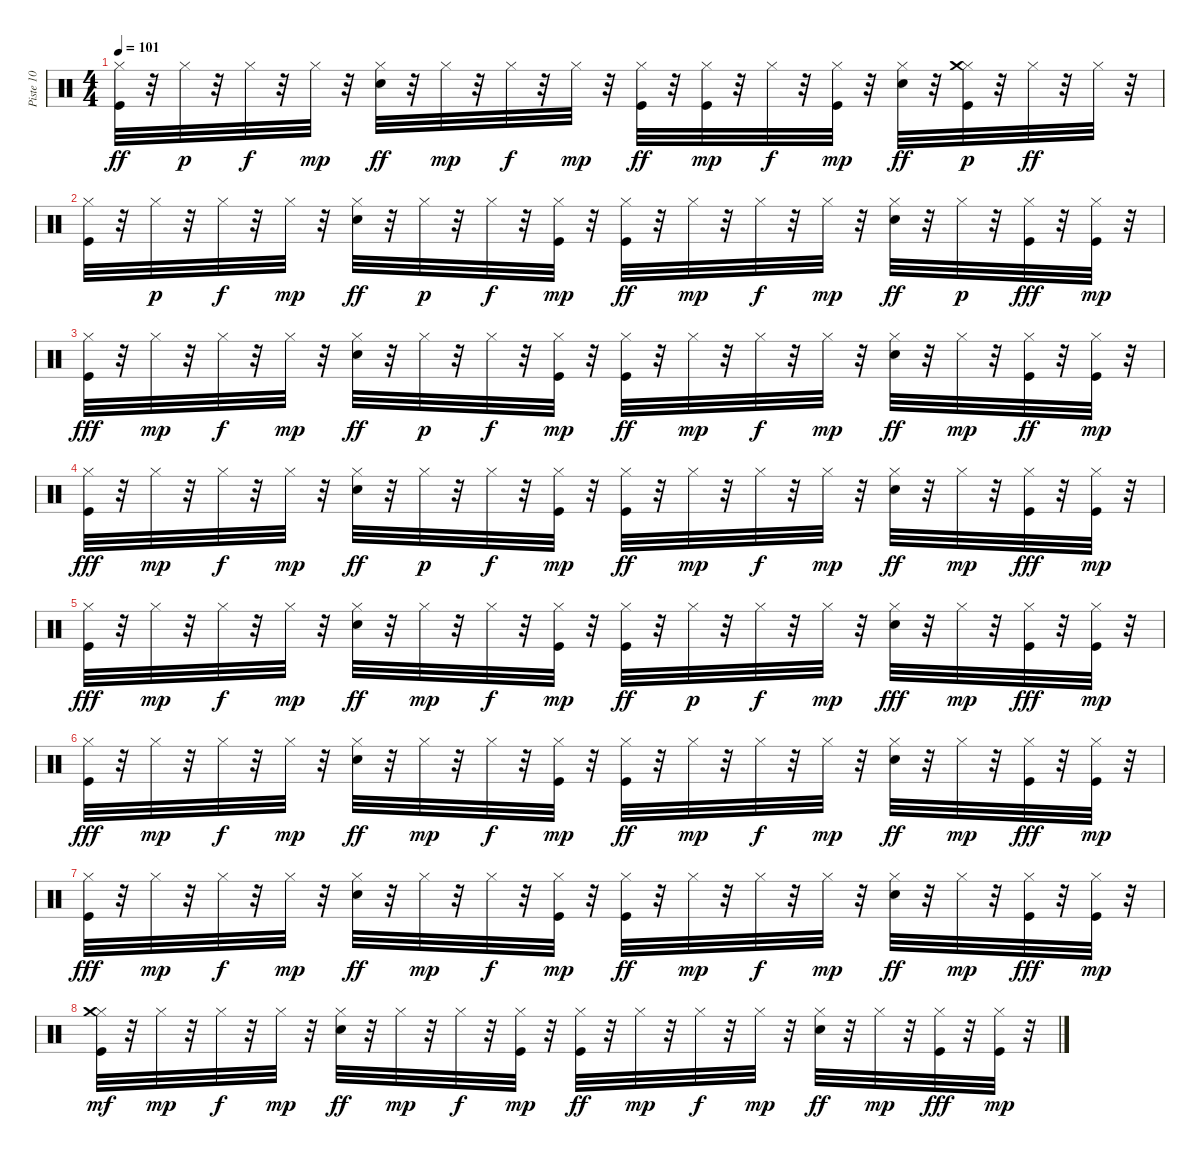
\track ("Piste 10" "Piste 10") {instrument percussion}
\staff {score}
\articulation defaults
\ts (4 4)
\tempo 101
\clef neutral
\ks c
("Kick (hit)" "Hi-Hat (closed)").32{dy ff} r.32 "Hi-Hat (closed)".32{dy p} r.32 "Hi-Hat (closed)".32{dy f} r.32 "Hi-Hat (closed)".32{dy mp} r.32 ("Electric Snare (hit)" "Hi-Hat (closed)").32{dy ff} r.32 "Hi-Hat (closed)".32{dy mp} r.32 "Hi-Hat (closed)".32{dy f} r.32 "Hi-Hat (closed)".32{dy mp} r.32 ("Kick (hit)" "Hi-Hat (closed)").32{dy ff} r.32 ("Kick (hit)" "Hi-Hat (closed)").32{dy mp} r.32 "Hi-Hat (closed)".32{dy f} r.32 ("Kick (hit)" "Hi-Hat (closed)").32{dy mp} r.32 ("Electric Snare (hit)" "Hi-Hat (closed)").32{dy ff} r.32 ("Kick (hit)" "Hi-Hat (closed)" "Crash medium (hit)").32{dy p} r.32 "Hi-Hat (closed)".32{dy ff} r.32 "Hi-Hat (closed)".32 r.32 |
("Kick (hit)" "Hi-Hat (closed)").32 r.32 "Hi-Hat (closed)".32{dy p} r.32 "Hi-Hat (closed)".32{dy f} r.32 "Hi-Hat (closed)".32{dy mp} r.32 ("Electric Snare (hit)" "Hi-Hat (closed)").32{dy ff} r.32 "Hi-Hat (closed)".32{dy p} r.32 "Hi-Hat (closed)".32{dy f} r.32 ("Kick (hit)" "Hi-Hat (closed)").32{dy mp} r.32 ("Kick (hit)" "Hi-Hat (closed)").32{dy ff} r.32 "Hi-Hat (closed)".32{dy mp} r.32 "Hi-Hat (closed)".32{dy f} r.32 "Hi-Hat (closed)".32{dy mp} r.32 ("Electric Snare (hit)" "Hi-Hat (closed)").32{dy ff} r.32 "Hi-Hat (closed)".32{dy p} r.32 ("Kick (hit)" "Hi-Hat (closed)").32{dy fff} r.32 ("Kick (hit)" "Hi-Hat (closed)").32{dy mp} r.32 |
("Kick (hit)" "Hi-Hat (closed)").32{dy fff} r.32 "Hi-Hat (closed)".32{dy mp} r.32 "Hi-Hat (closed)".32{dy f} r.32 "Hi-Hat (closed)".32{dy mp} r.32 ("Electric Snare (hit)" "Hi-Hat (closed)").32{dy ff} r.32 "Hi-Hat (closed)".32{dy p} r.32 "Hi-Hat (closed)".32{dy f} r.32 ("Kick (hit)" "Hi-Hat (closed)").32{dy mp} r.32 ("Kick (hit)" "Hi-Hat (closed)").32{dy ff} r.32 "Hi-Hat (closed)".32{dy mp} r.32 "Hi-Hat (closed)".32{dy f} r.32 "Hi-Hat (closed)".32{dy mp} r.32 ("Electric Snare (hit)" "Hi-Hat (closed)").32{dy ff} r.32 "Hi-Hat (closed)".32{dy mp} r.32 ("Kick (hit)" "Hi-Hat (closed)").32{dy ff} r.32 ("Kick (hit)" "Hi-Hat (closed)").32{dy mp} r.32 |
("Kick (hit)" "Hi-Hat (closed)").32{dy fff} r.32 "Hi-Hat (closed)".32{dy mp} r.32 "Hi-Hat (closed)".32{dy f} r.32 "Hi-Hat (closed)".32{dy mp} r.32 ("Electric Snare (hit)" "Hi-Hat (closed)").32{dy ff} r.32 "Hi-Hat (closed)".32{dy p} r.32 "Hi-Hat (closed)".32{dy f} r.32 ("Kick (hit)" "Hi-Hat (closed)").32{dy mp} r.32 ("Kick (hit)" "Hi-Hat (closed)").32{dy ff} r.32 "Hi-Hat (closed)".32{dy mp} r.32 "Hi-Hat (closed)".32{dy f} r.32 "Hi-Hat (closed)".32{dy mp} r.32 ("Electric Snare (hit)" "Hi-Hat (closed)").32{dy ff} r.32 "Hi-Hat (closed)".32{dy mp} r.32 ("Kick (hit)" "Hi-Hat (closed)").32{dy fff} r.32 ("Kick (hit)" "Hi-Hat (closed)").32{dy mp} r.32 |
("Kick (hit)" "Hi-Hat (closed)").32{dy fff} r.32 "Hi-Hat (closed)".32{dy mp} r.32 "Hi-Hat (closed)".32{dy f} r.32 "Hi-Hat (closed)".32{dy mp} r.32 ("Electric Snare (hit)" "Hi-Hat (closed)").32{dy ff} r.32 "Hi-Hat (closed)".32{dy mp} r.32 "Hi-Hat (closed)".32{dy f} r.32 ("Kick (hit)" "Hi-Hat (closed)").32{dy mp} r.32 ("Kick (hit)" "Hi-Hat (closed)").32{dy ff} r.32 "Hi-Hat (closed)".32{dy p} r.32 "Hi-Hat (closed)".32{dy f} r.32 "Hi-Hat (closed)".32{dy mp} r.32 ("Electric Snare (hit)" "Hi-Hat (closed)").32{dy fff} r.32 "Hi-Hat (closed)".32{dy mp} r.32 ("Kick (hit)" "Hi-Hat (closed)").32{dy fff} r.32 ("Kick (hit)" "Hi-Hat (closed)").32{dy mp} r.32 |
("Kick (hit)" "Hi-Hat (closed)").32{dy fff} r.32 "Hi-Hat (closed)".32{dy mp} r.32 "Hi-Hat (closed)".32{dy f} r.32 "Hi-Hat (closed)".32{dy mp} r.32 ("Electric Snare (hit)" "Hi-Hat (closed)").32{dy ff} r.32 "Hi-Hat (closed)".32{dy mp} r.32 "Hi-Hat (closed)".32{dy f} r.32 ("Kick (hit)" "Hi-Hat (closed)").32{dy mp} r.32 ("Kick (hit)" "Hi-Hat (closed)").32{dy ff} r.32 "Hi-Hat (closed)".32{dy mp} r.32 "Hi-Hat (closed)".32{dy f} r.32 "Hi-Hat (closed)".32{dy mp} r.32 ("Electric Snare (hit)" "Hi-Hat (closed)").32{dy ff} r.32 "Hi-Hat (closed)".32{dy mp} r.32 ("Kick (hit)" "Hi-Hat (closed)").32{dy fff} r.32 ("Kick (hit)" "Hi-Hat (closed)").32{dy mp} r.32 |
("Kick (hit)" "Hi-Hat (closed)").32{dy fff} r.32 "Hi-Hat (closed)".32{dy mp} r.32 "Hi-Hat (closed)".32{dy f} r.32 "Hi-Hat (closed)".32{dy mp} r.32 ("Electric Snare (hit)" "Hi-Hat (closed)").32{dy ff} r.32 "Hi-Hat (closed)".32{dy mp} r.32 "Hi-Hat (closed)".32{dy f} r.32 ("Kick (hit)" "Hi-Hat (closed)").32{dy mp} r.32 ("Kick (hit)" "Hi-Hat (closed)").32{dy ff} r.32 "Hi-Hat (closed)".32{dy mp} r.32 "Hi-Hat (closed)".32{dy f} r.32 "Hi-Hat (closed)".32{dy mp} r.32 ("Electric Snare (hit)" "Hi-Hat (closed)").32{dy ff} r.32 "Hi-Hat (closed)".32{dy mp} r.32 ("Kick (hit)" "Hi-Hat (closed)").32{dy fff} r.32 ("Kick (hit)" "Hi-Hat (closed)").32{dy mp} r.32 |
("Kick (hit)" "Hi-Hat (closed)" "Crash medium (hit)").32{dy mf} r.32 "Hi-Hat (closed)".32{dy mp} r.32 "Hi-Hat (closed)".32{dy f} r.32 "Hi-Hat (closed)".32{dy mp} r.32 ("Electric Snare (hit)" "Hi-Hat (closed)").32{dy ff} r.32 "Hi-Hat (closed)".32{dy mp} r.32 "Hi-Hat (closed)".32{dy f} r.32 ("Kick (hit)" "Hi-Hat (closed)").32{dy mp} r.32 ("Kick (hit)" "Hi-Hat (closed)").32{dy ff} r.32 "Hi-Hat (closed)".32{dy mp} r.32 "Hi-Hat (closed)".32{dy f} r.32 "Hi-Hat (closed)".32{dy mp} r.32 ("Electric Snare (hit)" "Hi-Hat (closed)").32{dy ff} r.32 "Hi-Hat (closed)".32{dy mp} r.32 ("Kick (hit)" "Hi-Hat (closed)").32{dy fff} r.32 ("Kick (hit)" "Hi-Hat (closed)").32{dy mp} r.32
